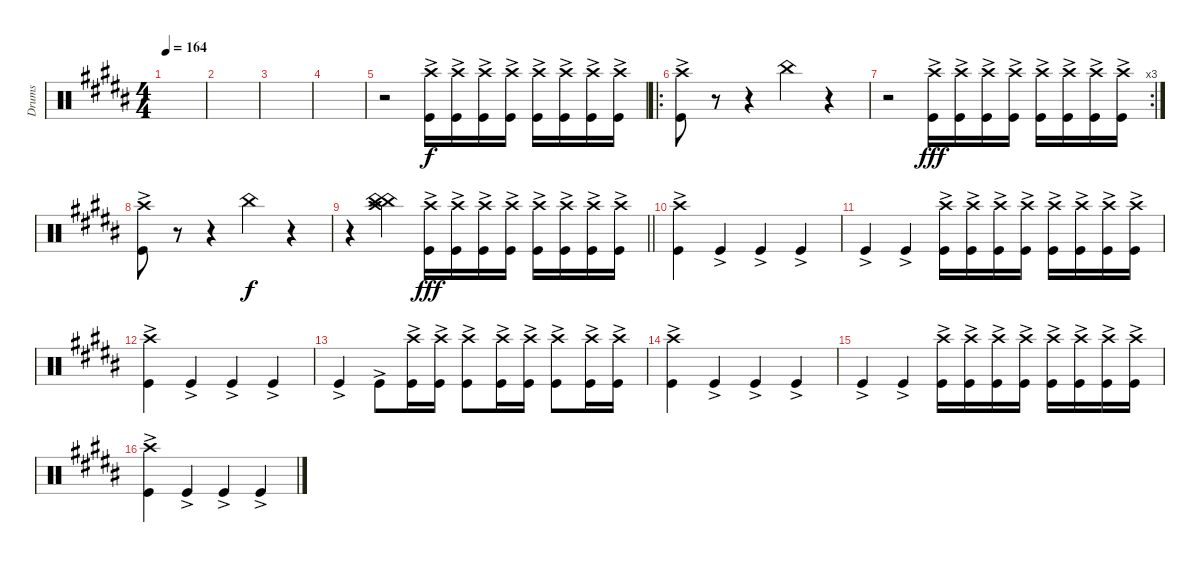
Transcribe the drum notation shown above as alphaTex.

\track ("Drums" "Drums") {instrument percussion}
\staff {score}
\articulation defaults
\ts (4 4)
\tempo 164
\clef neutral
\ks g#minor
|
|
|
|
r.2 ("Crash high (hit)" "Kick (hit)"{ac}).16 ("Crash high (hit)" "Kick (hit)"{ac}).16 ("Crash high (hit)" "Kick (hit)"{ac}).16 ("Crash high (hit)" "Kick (hit)"{ac}).16 ("Crash high (hit)" "Kick (hit)"{ac}).16 ("Crash high (hit)" "Kick (hit)"{ac}).16 ("Crash high (hit)" "Kick (hit)"{ac}).16 ("Crash high (hit)" "Kick (hit)"{ac}).16 |
\ro
("Crash high (hit)" "Kick (hit)"{ac}).8 r.8 r.4 "China (hit)".4{dy f} r.4 |
\rc 3
r.2 ("Crash high (hit)" "Kick (hit)"{ac}).16{dy fff} ("Crash high (hit)" "Kick (hit)"{ac}).16 ("Crash high (hit)" "Kick (hit)"{ac}).16 ("Crash high (hit)" "Kick (hit)"{ac}).16 ("Crash high (hit)" "Kick (hit)"{ac}).16 ("Crash high (hit)" "Kick (hit)"{ac}).16 ("Crash high (hit)" "Kick (hit)"{ac}).16 ("Crash high (hit)" "Kick (hit)"{ac}).16 |
("Crash high (hit)" "Kick (hit)"{ac}).8 r.8 r.4 "China (hit)".4{dy f} r.4 |
\barLineRight lightlight
r.4 ("China (hit)" "China (hit)" "Crash high (hit)").4 ("Crash high (hit)" "Kick (hit)"{ac}).16{dy fff} ("Crash high (hit)" "Kick (hit)"{ac}).16 ("Crash high (hit)" "Kick (hit)"{ac}).16 ("Crash high (hit)" "Kick (hit)"{ac}).16 ("Crash high (hit)" "Kick (hit)"{ac}).16 ("Crash high (hit)" "Kick (hit)"{ac}).16 ("Crash high (hit)" "Kick (hit)"{ac}).16 ("Crash high (hit)" "Kick (hit)"{ac}).16 |
("Crash high (hit)" "Kick (hit)"{ac}).4 "Kick (hit)"{ac}.4 "Kick (hit)"{ac}.4 "Kick (hit)"{ac}.4 |
"Kick (hit)"{ac}.4 "Kick (hit)"{ac}.4 ("Crash high (hit)" "Kick (hit)"{ac}).16 ("Crash high (hit)" "Kick (hit)"{ac}).16 ("Crash high (hit)" "Kick (hit)"{ac}).16 ("Crash high (hit)" "Kick (hit)"{ac}).16 ("Crash high (hit)" "Kick (hit)"{ac}).16 ("Crash high (hit)" "Kick (hit)"{ac}).16 ("Crash high (hit)" "Kick (hit)"{ac}).16 ("Crash high (hit)" "Kick (hit)"{ac}).16 |
("Crash high (hit)" "Kick (hit)"{ac}).4 "Kick (hit)"{ac}.4 "Kick (hit)"{ac}.4 "Kick (hit)"{ac}.4 |
"Kick (hit)"{ac}.4 "Kick (hit)"{ac}.8 ("Crash high (hit)" "Kick (hit)"{ac}).16 ("Crash high (hit)" "Kick (hit)"{ac}).16 ("Crash high (hit)" "Kick (hit)"{ac}).8 ("Crash high (hit)" "Kick (hit)"{ac}).16 ("Crash high (hit)" "Kick (hit)"{ac}).16 ("Crash high (hit)" "Kick (hit)"{ac}).8 ("Crash high (hit)" "Kick (hit)"{ac}).16 ("Crash high (hit)" "Kick (hit)"{ac}).16 |
("Crash high (hit)" "Kick (hit)"{ac}).4 "Kick (hit)"{ac}.4 "Kick (hit)"{ac}.4 "Kick (hit)"{ac}.4 |
"Kick (hit)"{ac}.4 "Kick (hit)"{ac}.4 ("Crash high (hit)" "Kick (hit)"{ac}).16 ("Crash high (hit)" "Kick (hit)"{ac}).16 ("Crash high (hit)" "Kick (hit)"{ac}).16 ("Crash high (hit)" "Kick (hit)"{ac}).16 ("Crash high (hit)" "Kick (hit)"{ac}).16 ("Crash high (hit)" "Kick (hit)"{ac}).16 ("Crash high (hit)" "Kick (hit)"{ac}).16 ("Crash high (hit)" "Kick (hit)"{ac}).16 |
("Crash high (hit)" "Kick (hit)"{ac}).4 "Kick (hit)"{ac}.4 "Kick (hit)"{ac}.4 "Kick (hit)"{ac}.4
